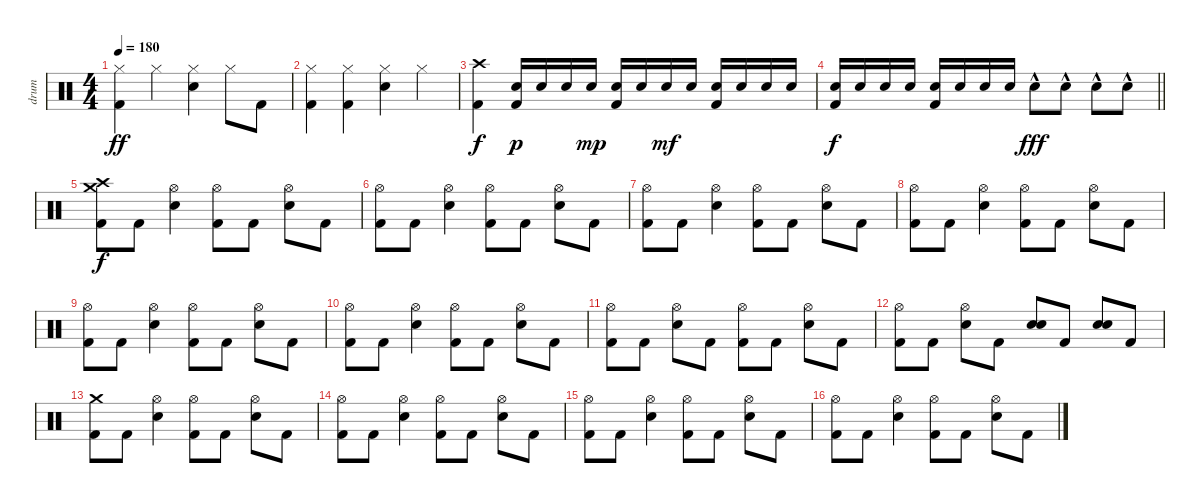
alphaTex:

\track ("drum" "drum") {instrument percussion}
\staff {score}
\articulation defaults
\ts (4 4)
\tempo 180
\clef neutral
\ks c
("Hi-Hat (closed)" "Kick (hit) 2").4{dy ff} "Hi-Hat (closed)".4 ("Hi-Hat (closed)" "Snare (hit) 2").4 "Hi-Hat (closed)".8 "Kick (hit) 2".8 |
("Hi-Hat (closed)" "Kick (hit) 2").4 ("Hi-Hat (closed)" "Kick (hit) 2").4 ("Hi-Hat (closed)" "Snare (hit) 2").4 "Hi-Hat (closed)".4 |
("Crash high (hit)" "Kick (hit) 2").4{dy f} ("Snare (hit) 2" "Kick (hit) 2").16{dy p} "Snare (hit) 2".16 "Snare (hit) 2".16 "Snare (hit) 2".16{dy mp} ("Snare (hit) 2" "Kick (hit) 2").16 "Snare (hit) 2".16 "Snare (hit) 2".16{dy mf} "Snare (hit) 2".16 ("Snare (hit) 2" "Kick (hit) 2").16 "Snare (hit) 2".16 "Snare (hit) 2".16 "Snare (hit) 2".16 |
\barLineRight lightlight
("Snare (hit) 2" "Kick (hit) 2").16{dy f} "Snare (hit) 2".16 "Snare (hit) 2".16 "Snare (hit) 2".16 ("Snare (hit) 2" "Kick (hit) 2").16 "Snare (hit) 2".16 "Snare (hit) 2".16 "Snare (hit) 2".16 "Snare (hit) 2"{hac}.8{dy fff} "Snare (hit) 2"{hac}.8 "Snare (hit) 2"{hac}.8 "Snare (hit) 2"{hac}.8 |
("Crash medium (hit)" "Crash high (hit)" "Kick (hit) 2").8{dy f} "Kick (hit) 2".8 ("Hi-Hat (open)" "Snare (hit) 2").4 ("Hi-Hat (open)" "Kick (hit) 2").8 "Kick (hit) 2".8 ("Hi-Hat (open)" "Snare (hit) 2").8 "Kick (hit) 2".8 |
("Hi-Hat (open)" "Kick (hit) 2").8 "Kick (hit) 2".8 ("Hi-Hat (open)" "Snare (hit) 2").4 ("Hi-Hat (open)" "Kick (hit) 2").8 "Kick (hit) 2".8 ("Hi-Hat (open)" "Snare (hit) 2").8 "Kick (hit) 2".8 |
("Hi-Hat (open)" "Kick (hit) 2").8 "Kick (hit) 2".8 ("Hi-Hat (open)" "Snare (hit) 2").4 ("Hi-Hat (open)" "Kick (hit) 2").8 "Kick (hit) 2".8 ("Hi-Hat (open)" "Snare (hit) 2").8 "Kick (hit) 2".8 |
("Hi-Hat (open)" "Kick (hit) 2").8 "Kick (hit) 2".8 ("Hi-Hat (open)" "Snare (hit) 2").4 ("Hi-Hat (open)" "Kick (hit) 2").8 "Kick (hit) 2".8 ("Hi-Hat (open)" "Snare (hit) 2").8 "Kick (hit) 2".8 |
("Hi-Hat (open)" "Kick (hit) 2").8 "Kick (hit) 2".8 ("Hi-Hat (open)" "Snare (hit) 2").4 ("Hi-Hat (open)" "Kick (hit) 2").8 "Kick (hit) 2".8 ("Hi-Hat (open)" "Snare (hit) 2").8 "Kick (hit) 2".8 |
("Hi-Hat (open)" "Kick (hit) 2").8 "Kick (hit) 2".8 ("Hi-Hat (open)" "Snare (hit) 2").4 ("Hi-Hat (open)" "Kick (hit) 2").8 "Kick (hit) 2".8 ("Hi-Hat (open)" "Snare (hit) 2").8 "Kick (hit) 2".8 |
("Hi-Hat (open)" "Kick (hit) 2").8 "Kick (hit) 2".8 ("Hi-Hat (open)" "Snare (hit) 2").8 "Kick (hit) 2".8 ("Hi-Hat (open)" "Kick (hit) 2").8 "Kick (hit) 2".8 ("Hi-Hat (open)" "Snare (hit) 2").8 "Kick (hit) 2".8 |
("Hi-Hat (open)" "Kick (hit) 2").8 "Kick (hit) 2".8 ("Hi-Hat (open)" "Snare (hit) 2").8 "Kick (hit) 2".8 ("Snare (hit) 2" "Snare (hit) 2").8 "Kick (hit) 2".8 ("Snare (hit) 2" "Snare (hit) 2").8 "Kick (hit) 2".8 |
("Crash medium (hit)" "Kick (hit) 2").8 "Kick (hit) 2".8 ("Hi-Hat (open)" "Snare (hit) 2").4 ("Hi-Hat (open)" "Kick (hit) 2").8 "Kick (hit) 2".8 ("Hi-Hat (open)" "Snare (hit) 2").8 "Kick (hit) 2".8 |
("Hi-Hat (open)" "Kick (hit) 2").8 "Kick (hit) 2".8 ("Hi-Hat (open)" "Snare (hit) 2").4 ("Hi-Hat (open)" "Kick (hit) 2").8 "Kick (hit) 2".8 ("Hi-Hat (open)" "Snare (hit) 2").8 "Kick (hit) 2".8 |
("Hi-Hat (open)" "Kick (hit) 2").8 "Kick (hit) 2".8 ("Hi-Hat (open)" "Snare (hit) 2").4 ("Hi-Hat (open)" "Kick (hit) 2").8 "Kick (hit) 2".8 ("Hi-Hat (open)" "Snare (hit) 2").8 "Kick (hit) 2".8 |
("Hi-Hat (open)" "Kick (hit) 2").8 "Kick (hit) 2".8 ("Hi-Hat (open)" "Snare (hit) 2").4 ("Hi-Hat (open)" "Kick (hit) 2").8 "Kick (hit) 2".8 ("Hi-Hat (open)" "Snare (hit) 2").8 "Kick (hit) 2".8
